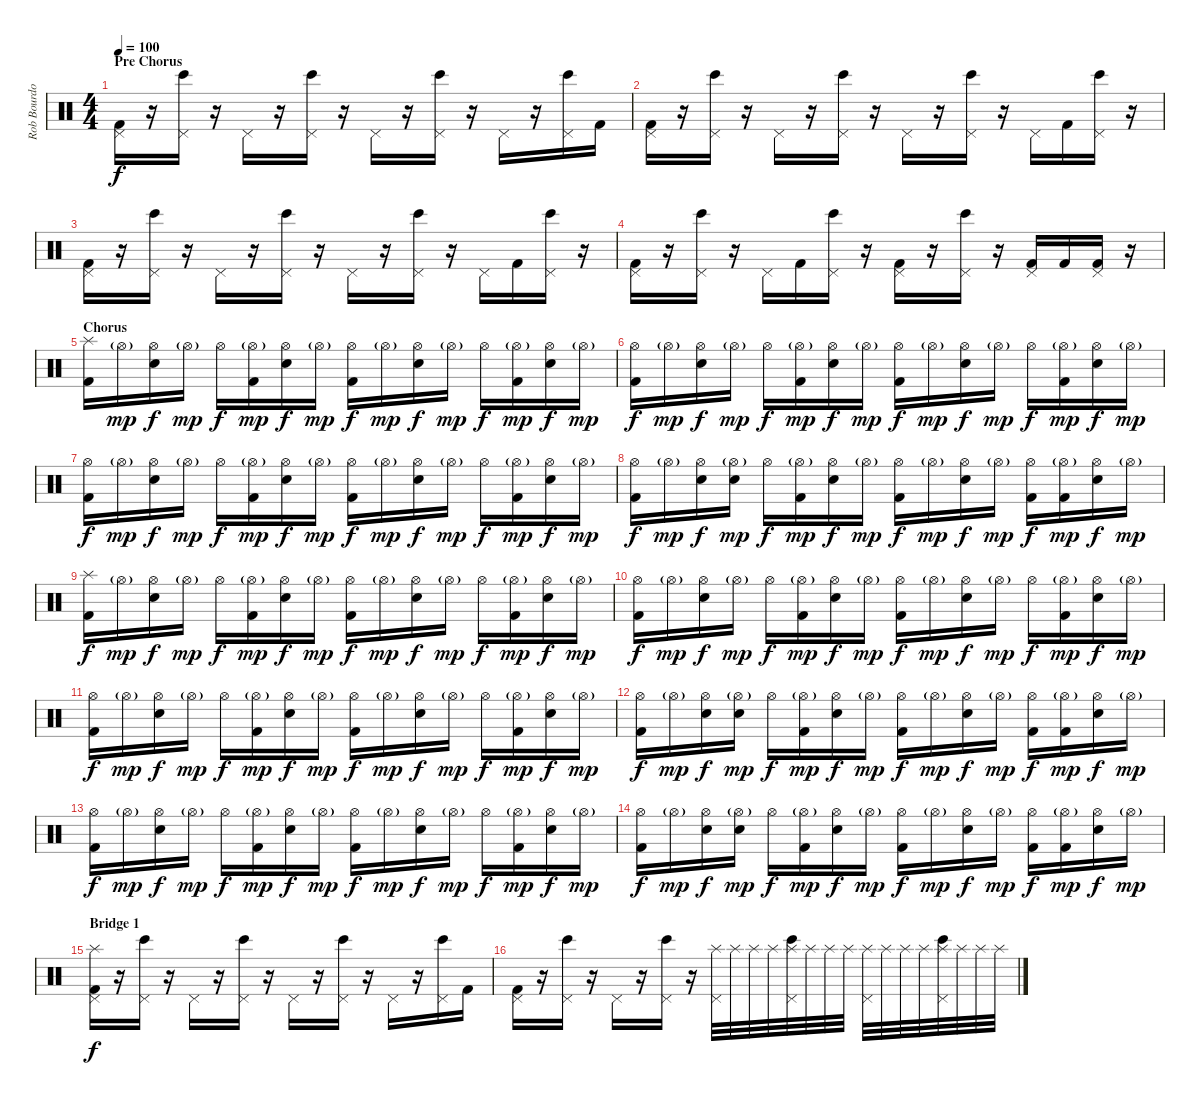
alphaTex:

\track ("Rob Bourdon (Drums)" "Rob Bourdo") {instrument percussion}
\staff {score}
\articulation defaults
\ts (4 4)
\section ("" "Pre Chorus")
\tempo 100
\clef neutral
\ks c
("Pedal Hi-Hat (hit)" "Kick (hit) 2").16{dy f} r.16 ("Bongo High (hit)" "Pedal Hi-Hat (hit)").16 r.16 "Pedal Hi-Hat (hit)".16 r.16 ("Bongo High (hit)" "Pedal Hi-Hat (hit)").16 r.16 "Pedal Hi-Hat (hit)".16 r.16 ("Bongo High (hit)" "Pedal Hi-Hat (hit)").16 r.16 "Pedal Hi-Hat (hit)".16 r.16 ("Bongo High (hit)" "Pedal Hi-Hat (hit)").16 "Kick (hit) 2".16 |
("Pedal Hi-Hat (hit)" "Kick (hit) 2").16 r.16 ("Bongo High (hit)" "Pedal Hi-Hat (hit)").16 r.16 "Pedal Hi-Hat (hit)".16 r.16 ("Bongo High (hit)" "Pedal Hi-Hat (hit)").16 r.16 "Pedal Hi-Hat (hit)".16 r.16 ("Bongo High (hit)" "Pedal Hi-Hat (hit)").16 r.16 "Pedal Hi-Hat (hit)".16 "Kick (hit) 2".16 ("Bongo High (hit)" "Pedal Hi-Hat (hit)").16 r.16 |
("Pedal Hi-Hat (hit)" "Kick (hit) 2").16 r.16 ("Bongo High (hit)" "Pedal Hi-Hat (hit)").16 r.16 "Pedal Hi-Hat (hit)".16 r.16 ("Bongo High (hit)" "Pedal Hi-Hat (hit)").16 r.16 "Pedal Hi-Hat (hit)".16 r.16 ("Bongo High (hit)" "Pedal Hi-Hat (hit)").16 r.16 "Pedal Hi-Hat (hit)".16 "Kick (hit) 2".16 ("Bongo High (hit)" "Pedal Hi-Hat (hit)").16 r.16 |
("Pedal Hi-Hat (hit)" "Kick (hit) 2").16 r.16 ("Bongo High (hit)" "Pedal Hi-Hat (hit)").16 r.16 "Pedal Hi-Hat (hit)".16 "Kick (hit) 2".16 ("Bongo High (hit)" "Pedal Hi-Hat (hit)").16 r.16 ("Pedal Hi-Hat (hit)" "Kick (hit) 2").16 r.16 ("Bongo High (hit)" "Pedal Hi-Hat (hit)").16 r.16 ("Pedal Hi-Hat (hit)" "Kick (hit) 2").16 "Kick (hit) 2".16 ("Pedal Hi-Hat (hit)" "Kick (hit) 2").16 r.16 |
\section ("" "Chorus")
("Splash (hit)" "Kick (hit) 2").16 "Hi-Hat (open)"{g}.16{dy mp} ("Hi-Hat (open)" "Electric Snare (hit)").16{dy f} "Hi-Hat (open)"{g}.16{dy mp} "Hi-Hat (open)".16{dy f} ("Hi-Hat (open)"{g} "Kick (hit) 2").16{dy mp} ("Hi-Hat (open)" "Electric Snare (hit)").16{dy f} "Hi-Hat (open)"{g}.16{dy mp} ("Hi-Hat (open)" "Kick (hit) 2").16{dy f} "Hi-Hat (open)"{g}.16{dy mp} ("Hi-Hat (open)" "Electric Snare (hit)").16{dy f} "Hi-Hat (open)"{g}.16{dy mp} "Hi-Hat (open)".16{dy f} ("Hi-Hat (open)"{g} "Kick (hit) 2").16{dy mp} ("Hi-Hat (open)" "Electric Snare (hit)").16{dy f} "Hi-Hat (open)"{g}.16{dy mp} |
("Hi-Hat (open)" "Kick (hit) 2").16{dy f} "Hi-Hat (open)"{g}.16{dy mp} ("Hi-Hat (open)" "Electric Snare (hit)").16{dy f} "Hi-Hat (open)"{g}.16{dy mp} "Hi-Hat (open)".16{dy f} ("Hi-Hat (open)"{g} "Kick (hit) 2").16{dy mp} ("Hi-Hat (open)" "Electric Snare (hit)").16{dy f} "Hi-Hat (open)"{g}.16{dy mp} ("Hi-Hat (open)" "Kick (hit) 2").16{dy f} "Hi-Hat (open)"{g}.16{dy mp} ("Hi-Hat (open)" "Electric Snare (hit)").16{dy f} "Hi-Hat (open)"{g}.16{dy mp} "Hi-Hat (open)".16{dy f} ("Hi-Hat (open)"{g} "Kick (hit) 2").16{dy mp} ("Hi-Hat (open)" "Electric Snare (hit)").16{dy f} "Hi-Hat (open)"{g}.16{dy mp} |
("Hi-Hat (open)" "Kick (hit) 2").16{dy f} "Hi-Hat (open)"{g}.16{dy mp} ("Hi-Hat (open)" "Electric Snare (hit)").16{dy f} "Hi-Hat (open)"{g}.16{dy mp} "Hi-Hat (open)".16{dy f} ("Hi-Hat (open)"{g} "Kick (hit) 2").16{dy mp} ("Hi-Hat (open)" "Electric Snare (hit)").16{dy f} "Hi-Hat (open)"{g}.16{dy mp} ("Hi-Hat (open)" "Kick (hit) 2").16{dy f} "Hi-Hat (open)"{g}.16{dy mp} ("Hi-Hat (open)" "Electric Snare (hit)").16{dy f} "Hi-Hat (open)"{g}.16{dy mp} "Hi-Hat (open)".16{dy f} ("Hi-Hat (open)"{g} "Kick (hit) 2").16{dy mp} ("Hi-Hat (open)" "Electric Snare (hit)").16{dy f} "Hi-Hat (open)"{g}.16{dy mp} |
("Hi-Hat (open)" "Kick (hit) 2").16{dy f} "Hi-Hat (open)"{g}.16{dy mp} ("Hi-Hat (open)" "Electric Snare (hit)").16{dy f} ("Hi-Hat (open)"{g} "Electric Snare (hit)").16{dy mp} "Hi-Hat (open)".16{dy f} ("Hi-Hat (open)"{g} "Kick (hit) 2").16{dy mp} ("Hi-Hat (open)" "Electric Snare (hit)").16{dy f} "Hi-Hat (open)"{g}.16{dy mp} ("Hi-Hat (open)" "Kick (hit) 2").16{dy f} "Hi-Hat (open)"{g}.16{dy mp} ("Hi-Hat (open)" "Electric Snare (hit)").16{dy f} "Hi-Hat (open)"{g}.16{dy mp} ("Hi-Hat (open)" "Kick (hit) 2").16{dy f} ("Hi-Hat (open)"{g} "Kick (hit) 2").16{dy mp} ("Hi-Hat (open)" "Electric Snare (hit)").16{dy f} "Hi-Hat (open)"{g}.16{dy mp} |
("Splash (hit)" "Kick (hit) 2").16{dy f} "Hi-Hat (open)"{g}.16{dy mp} ("Hi-Hat (open)" "Electric Snare (hit)").16{dy f} "Hi-Hat (open)"{g}.16{dy mp} "Hi-Hat (open)".16{dy f} ("Hi-Hat (open)"{g} "Kick (hit) 2").16{dy mp} ("Hi-Hat (open)" "Electric Snare (hit)").16{dy f} "Hi-Hat (open)"{g}.16{dy mp} ("Hi-Hat (open)" "Kick (hit) 2").16{dy f} "Hi-Hat (open)"{g}.16{dy mp} ("Hi-Hat (open)" "Electric Snare (hit)").16{dy f} "Hi-Hat (open)"{g}.16{dy mp} "Hi-Hat (open)".16{dy f} ("Hi-Hat (open)"{g} "Kick (hit) 2").16{dy mp} ("Hi-Hat (open)" "Electric Snare (hit)").16{dy f} "Hi-Hat (open)"{g}.16{dy mp} |
("Hi-Hat (open)" "Kick (hit) 2").16{dy f} "Hi-Hat (open)"{g}.16{dy mp} ("Hi-Hat (open)" "Electric Snare (hit)").16{dy f} "Hi-Hat (open)"{g}.16{dy mp} "Hi-Hat (open)".16{dy f} ("Hi-Hat (open)"{g} "Kick (hit) 2").16{dy mp} ("Hi-Hat (open)" "Electric Snare (hit)").16{dy f} "Hi-Hat (open)"{g}.16{dy mp} ("Hi-Hat (open)" "Kick (hit) 2").16{dy f} "Hi-Hat (open)"{g}.16{dy mp} ("Hi-Hat (open)" "Electric Snare (hit)").16{dy f} "Hi-Hat (open)"{g}.16{dy mp} "Hi-Hat (open)".16{dy f} ("Hi-Hat (open)"{g} "Kick (hit) 2").16{dy mp} ("Hi-Hat (open)" "Electric Snare (hit)").16{dy f} "Hi-Hat (open)"{g}.16{dy mp} |
("Hi-Hat (open)" "Kick (hit) 2").16{dy f} "Hi-Hat (open)"{g}.16{dy mp} ("Hi-Hat (open)" "Electric Snare (hit)").16{dy f} "Hi-Hat (open)"{g}.16{dy mp} "Hi-Hat (open)".16{dy f} ("Hi-Hat (open)"{g} "Kick (hit) 2").16{dy mp} ("Hi-Hat (open)" "Electric Snare (hit)").16{dy f} "Hi-Hat (open)"{g}.16{dy mp} ("Hi-Hat (open)" "Kick (hit) 2").16{dy f} "Hi-Hat (open)"{g}.16{dy mp} ("Hi-Hat (open)" "Electric Snare (hit)").16{dy f} "Hi-Hat (open)"{g}.16{dy mp} "Hi-Hat (open)".16{dy f} ("Hi-Hat (open)"{g} "Kick (hit) 2").16{dy mp} ("Hi-Hat (open)" "Electric Snare (hit)").16{dy f} "Hi-Hat (open)"{g}.16{dy mp} |
("Hi-Hat (open)" "Kick (hit) 2").16{dy f} "Hi-Hat (open)"{g}.16{dy mp} ("Hi-Hat (open)" "Electric Snare (hit)").16{dy f} ("Hi-Hat (open)"{g} "Electric Snare (hit)").16{dy mp} "Hi-Hat (open)".16{dy f} ("Hi-Hat (open)"{g} "Kick (hit) 2").16{dy mp} ("Hi-Hat (open)" "Electric Snare (hit)").16{dy f} "Hi-Hat (open)"{g}.16{dy mp} ("Hi-Hat (open)" "Kick (hit) 2").16{dy f} "Hi-Hat (open)"{g}.16{dy mp} ("Hi-Hat (open)" "Electric Snare (hit)").16{dy f} "Hi-Hat (open)"{g}.16{dy mp} ("Hi-Hat (open)" "Kick (hit) 2").16{dy f} ("Hi-Hat (open)"{g} "Kick (hit) 2").16{dy mp} ("Hi-Hat (open)" "Electric Snare (hit)").16{dy f} "Hi-Hat (open)"{g}.16{dy mp} |
("Hi-Hat (open)" "Kick (hit) 2").16{dy f} "Hi-Hat (open)"{g}.16{dy mp} ("Hi-Hat (open)" "Electric Snare (hit)").16{dy f} "Hi-Hat (open)"{g}.16{dy mp} "Hi-Hat (open)".16{dy f} ("Hi-Hat (open)"{g} "Kick (hit) 2").16{dy mp} ("Hi-Hat (open)" "Electric Snare (hit)").16{dy f} "Hi-Hat (open)"{g}.16{dy mp} ("Hi-Hat (open)" "Kick (hit) 2").16{dy f} "Hi-Hat (open)"{g}.16{dy mp} ("Hi-Hat (open)" "Electric Snare (hit)").16{dy f} "Hi-Hat (open)"{g}.16{dy mp} "Hi-Hat (open)".16{dy f} ("Hi-Hat (open)"{g} "Kick (hit) 2").16{dy mp} ("Hi-Hat (open)" "Electric Snare (hit)").16{dy f} "Hi-Hat (open)"{g}.16{dy mp} |
("Hi-Hat (open)" "Kick (hit) 2").16{dy f} "Hi-Hat (open)"{g}.16{dy mp} ("Hi-Hat (open)" "Electric Snare (hit)").16{dy f} ("Hi-Hat (open)"{g} "Electric Snare (hit)").16{dy mp} "Hi-Hat (open)".16{dy f} ("Hi-Hat (open)"{g} "Kick (hit) 2").16{dy mp} ("Hi-Hat (open)" "Electric Snare (hit)").16{dy f} "Hi-Hat (open)"{g}.16{dy mp} ("Hi-Hat (open)" "Kick (hit) 2").16{dy f} "Hi-Hat (open)"{g}.16{dy mp} ("Hi-Hat (open)" "Electric Snare (hit)").16{dy f} "Hi-Hat (open)"{g}.16{dy mp} ("Hi-Hat (open)" "Kick (hit) 2").16{dy f} ("Hi-Hat (open)"{g} "Kick (hit) 2").16{dy mp} ("Hi-Hat (open)" "Electric Snare (hit)").16{dy f} "Hi-Hat (open)"{g}.16{dy mp} |
\section ("" "Bridge 1")
("Splash (hit)" "Pedal Hi-Hat (hit)" "Kick (hit) 2").16{dy f} r.16 ("Bongo High (hit)" "Pedal Hi-Hat (hit)").16 r.16 "Pedal Hi-Hat (hit)".16 r.16 ("Bongo High (hit)" "Pedal Hi-Hat (hit)").16 r.16 "Pedal Hi-Hat (hit)".16 r.16 ("Bongo High (hit)" "Pedal Hi-Hat (hit)").16 r.16 "Pedal Hi-Hat (hit)".16 r.16 ("Bongo High (hit)" "Pedal Hi-Hat (hit)").16 "Kick (hit) 2".16 |
("Pedal Hi-Hat (hit)" "Kick (hit) 2").16 r.16 ("Bongo High (hit)" "Pedal Hi-Hat (hit)").16 r.16 "Pedal Hi-Hat (hit)".16 r.16 ("Bongo High (hit)" "Pedal Hi-Hat (hit)").16 r.16 ("Splash (hit)" "Pedal Hi-Hat (hit)").32 "Splash (hit)".32 "Splash (hit)".32 "Splash (hit)".32 ("Splash (hit)" "Bongo High (hit)" "Pedal Hi-Hat (hit)").32 "Splash (hit)".32 "Splash (hit)".32 "Splash (hit)".32 ("Splash (hit)" "Pedal Hi-Hat (hit)").32 "Splash (hit)".32 "Splash (hit)".32 "Splash (hit)".32 ("Splash (hit)" "Bongo High (hit)" "Pedal Hi-Hat (hit)").32 "Splash (hit)".32 "Splash (hit)".32 "Splash (hit)".32
